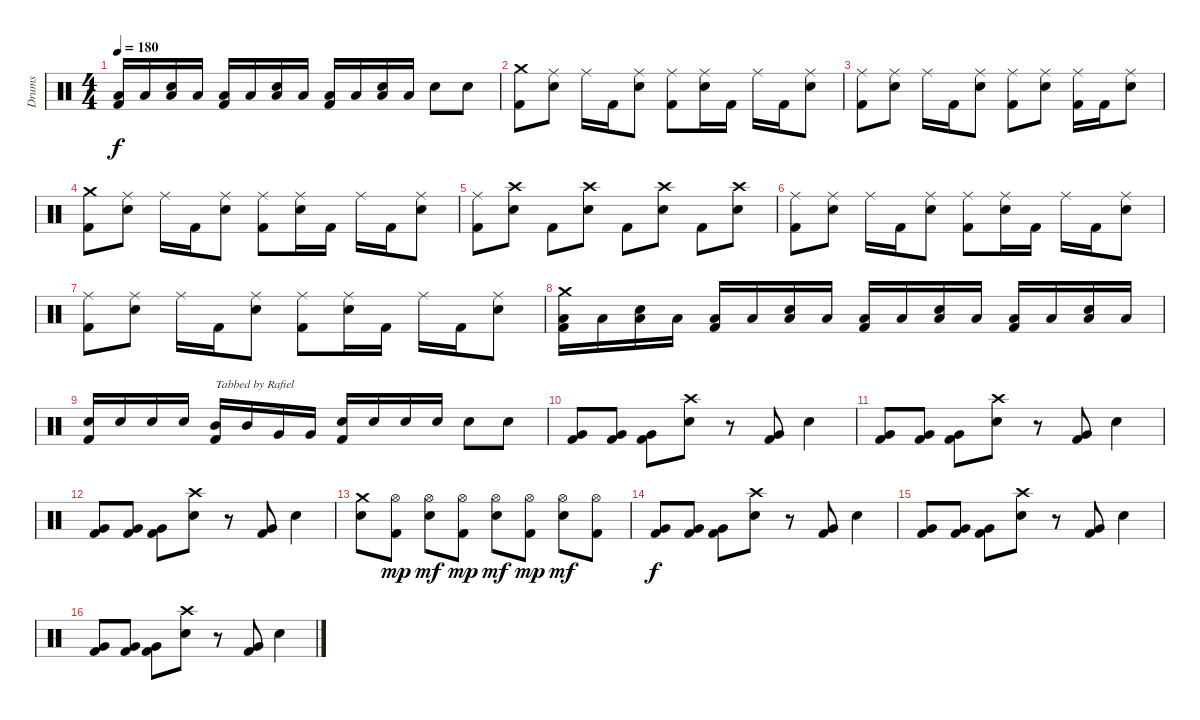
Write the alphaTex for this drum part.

\track ("Drums" "Drums") {instrument percussion}
\staff {score}
\articulation defaults
\ts (4 4)
\tempo 180
\clef neutral
\ks c
("Low Tom (hit)" "Kick (hit) 2").16{dy f} "Low Tom (hit)".16 ("Electric Snare (hit)" "Low Tom (hit)").16 "Low Tom (hit)".16 ("Low Tom (hit)" "Kick (hit) 2").16 "Low Tom (hit)".16 ("Electric Snare (hit)" "Low Tom (hit)").16 "Low Tom (hit)".16 ("Low Tom (hit)" "Kick (hit) 2").16 "Low Tom (hit)".16 ("Electric Snare (hit)" "Low Tom (hit)").16 "Low Tom (hit)".16 "Electric Snare (hit)".8 "Electric Snare (hit)".8 |
("Crash medium (hit)" "Kick (hit) 2").8 ("Ride (middle)" "Electric Snare (hit)").8 "Ride (middle)".16 "Kick (hit) 2".16 ("Ride (middle)" "Electric Snare (hit)").8 ("Ride (middle)" "Kick (hit) 2").8 ("Ride (middle)" "Electric Snare (hit)").16 "Kick (hit) 2".16 "Ride (middle)".16 "Kick (hit) 2".16 ("Ride (middle)" "Electric Snare (hit)").8 |
("Ride (middle)" "Kick (hit) 2").8 ("Ride (middle)" "Electric Snare (hit)").8 "Ride (middle)".16 "Kick (hit) 2".16 ("Ride (middle)" "Electric Snare (hit)").8 ("Ride (middle)" "Kick (hit) 2").8 ("Ride (middle)" "Electric Snare (hit)").8 ("Ride (middle)" "Kick (hit) 2").16 "Kick (hit) 2".16 ("Ride (middle)" "Electric Snare (hit)").8 |
("Crash medium (hit)" "Kick (hit) 2").8 ("Ride (middle)" "Electric Snare (hit)").8 "Ride (middle)".16 "Kick (hit) 2".16 ("Ride (middle)" "Electric Snare (hit)").8 ("Ride (middle)" "Kick (hit) 2").8 ("Ride (middle)" "Electric Snare (hit)").16 "Kick (hit) 2".16 "Ride (middle)".16 "Kick (hit) 2".16 ("Ride (middle)" "Electric Snare (hit)").8 |
("Ride (middle)" "Kick (hit) 2").8 ("Crash high (hit)" "Electric Snare (hit)").8 "Kick (hit) 2".8 ("Crash high (hit)" "Electric Snare (hit)").8 "Kick (hit) 2".8 ("Crash high (hit)" "Electric Snare (hit)").8 "Kick (hit) 2".8 ("Crash high (hit)" "Electric Snare (hit)").8 |
("Ride (middle)" "Kick (hit) 2").8 ("Ride (middle)" "Electric Snare (hit)").8 "Ride (middle)".16 "Kick (hit) 2".16 ("Ride (middle)" "Electric Snare (hit)").8 ("Ride (middle)" "Kick (hit) 2").8 ("Ride (middle)" "Electric Snare (hit)").16 "Kick (hit) 2".16 "Ride (middle)".16 "Kick (hit) 2".16 ("Ride (middle)" "Electric Snare (hit)").8 |
("Ride (middle)" "Kick (hit) 2").8 ("Ride (middle)" "Electric Snare (hit)").8 "Ride (middle)".16 "Kick (hit) 2".16 ("Ride (middle)" "Electric Snare (hit)").8 ("Ride (middle)" "Kick (hit) 2").8 ("Ride (middle)" "Electric Snare (hit)").16 "Kick (hit) 2".16 "Ride (middle)".16 "Kick (hit) 2".16 ("Ride (middle)" "Electric Snare (hit)").8 |
("Crash medium (hit)" "Low Tom (hit)" "Kick (hit) 2").16 "Low Tom (hit)".16 ("Electric Snare (hit)" "Low Tom (hit)").16 "Low Tom (hit)".16 ("Low Tom (hit)" "Kick (hit) 2").16 "Low Tom (hit)".16 ("Electric Snare (hit)" "Low Tom (hit)").16 "Low Tom (hit)".16 ("Low Tom (hit)" "Kick (hit) 2").16 "Low Tom (hit)".16 ("Electric Snare (hit)" "Low Tom (hit)").16 "Low Tom (hit)".16 ("Low Tom (hit)" "Kick (hit) 2").16 "Low Tom (hit)".16 ("Electric Snare (hit)" "Low Tom (hit)").16 "Low Tom (hit)".16 |
("Electric Snare (hit)" "Kick (hit) 2").16 "Electric Snare (hit)".16 "Electric Snare (hit)".16 "Electric Snare (hit)".16 ("Mid Tom (hit)" "Kick (hit) 2").16{txt "Tabbed by Rafiel"} "Mid Tom (hit)".16 "Very Low Tom (hit)".16 "Very Low Tom (hit)".16 ("Electric Snare (hit)" "Kick (hit) 2").16 "Electric Snare (hit)".16 "Electric Snare (hit)".16 "Electric Snare (hit)".16 "Electric Snare (hit)".8 "Electric Snare (hit)".8 |
("Very Low Tom (hit)" "Kick (hit) 2").8 ("Very Low Tom (hit)" "Kick (hit) 2").8 ("Very Low Tom (hit)" "Kick (hit) 2").8 ("Crash high (hit)" "Electric Snare (hit)").8 r.8 ("Very Low Tom (hit)" "Kick (hit) 2").8 "Electric Snare (hit)".4 |
("Very Low Tom (hit)" "Kick (hit) 2").8 ("Very Low Tom (hit)" "Kick (hit) 2").8 ("Very Low Tom (hit)" "Kick (hit) 2").8 ("Crash high (hit)" "Electric Snare (hit)").8 r.8 ("Very Low Tom (hit)" "Kick (hit) 2").8 "Electric Snare (hit)".4 |
("Very Low Tom (hit)" "Kick (hit) 2").8 ("Very Low Tom (hit)" "Kick (hit) 2").8 ("Very Low Tom (hit)" "Kick (hit) 2").8 ("Crash high (hit)" "Electric Snare (hit)").8 r.8 ("Very Low Tom (hit)" "Kick (hit) 2").8 "Electric Snare (hit)".4 |
("Crash medium (hit)" "Electric Snare (hit)").8 ("Hi-Hat (open)" "Kick (hit) 2").8{dy mp} ("Hi-Hat (open)" "Electric Snare (hit)").8{dy mf} ("Hi-Hat (open)" "Kick (hit) 2").8{dy mp} ("Hi-Hat (open)" "Electric Snare (hit)").8{dy mf} ("Hi-Hat (open)" "Kick (hit) 2").8{dy mp} ("Hi-Hat (open)" "Electric Snare (hit)").8{dy mf} ("Hi-Hat (open)" "Kick (hit) 2").8 |
("Very Low Tom (hit)" "Kick (hit) 2").8{dy f} ("Very Low Tom (hit)" "Kick (hit) 2").8 ("Very Low Tom (hit)" "Kick (hit) 2").8 ("Crash high (hit)" "Electric Snare (hit)").8 r.8 ("Very Low Tom (hit)" "Kick (hit) 2").8 "Electric Snare (hit)".4 |
("Very Low Tom (hit)" "Kick (hit) 2").8 ("Very Low Tom (hit)" "Kick (hit) 2").8 ("Very Low Tom (hit)" "Kick (hit) 2").8 ("Crash high (hit)" "Electric Snare (hit)").8 r.8 ("Very Low Tom (hit)" "Kick (hit) 2").8 "Electric Snare (hit)".4 |
("Very Low Tom (hit)" "Kick (hit) 2").8 ("Very Low Tom (hit)" "Kick (hit) 2").8 ("Very Low Tom (hit)" "Kick (hit) 2").8 ("Crash high (hit)" "Electric Snare (hit)").8 r.8 ("Very Low Tom (hit)" "Kick (hit) 2").8 "Electric Snare (hit)".4
